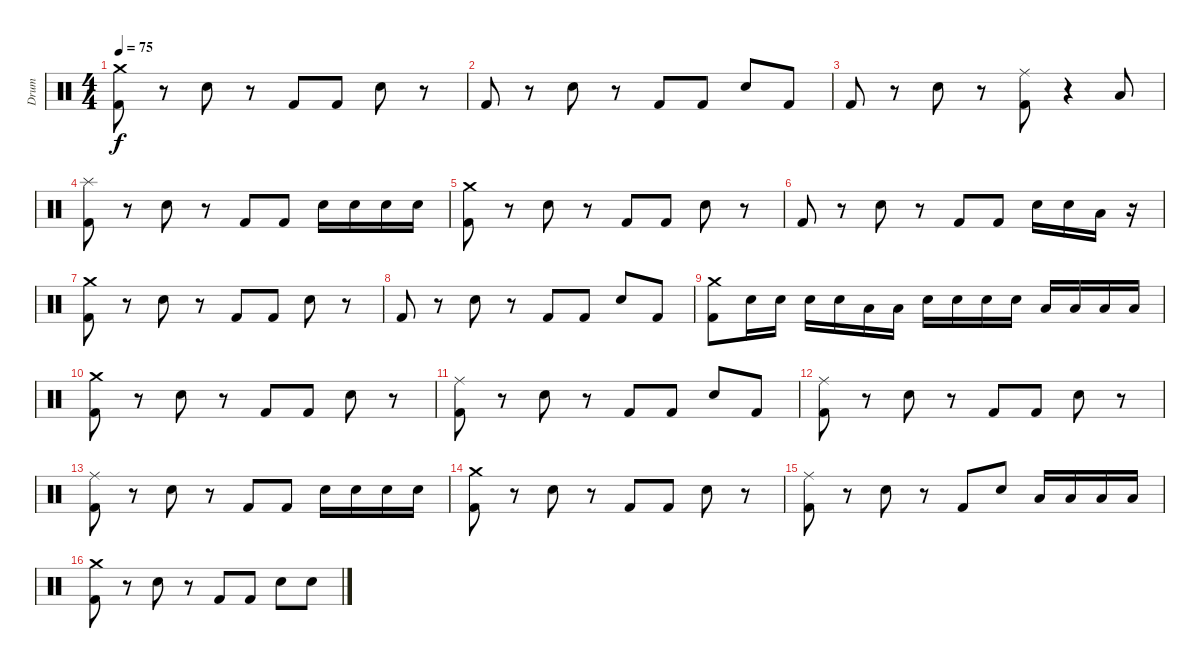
\track ("Drum" "Drum") {instrument percussion}
\staff {score}
\articulation defaults
\ts (4 4)
\tempo 75
\clef neutral
\ks c
("Kick (hit) 2" "Crash medium (hit)").8{dy f} r.8 "Snare (hit) 2".8 r.8 "Kick (hit) 2".8 "Kick (hit) 2".8 "Snare (hit) 2".8 r.8 |
"Kick (hit) 2".8 r.8 "Snare (hit) 2".8 r.8 "Kick (hit) 2".8 "Kick (hit) 2".8 "Snare (hit) 2".8 "Kick (hit) 2".8 |
"Kick (hit) 2".8 r.8 "Snare (hit) 2".8 r.8 ("Kick (hit) 2" "Ride (middle)").8 r.4 "Low Floor Tom (hit)".8 |
("Kick (hit) 2" "Splash (hit)").8 r.8 "Snare (hit) 2".8 r.8 "Kick (hit) 2".8 "Kick (hit) 2".8 "Electric Snare (hit)".16 "Electric Snare (hit)".16 "Snare (hit) 2".16 "Snare (hit) 2".16 |
("Kick (hit) 2" "Crash medium (hit)").8 r.8 "Snare (hit) 2".8 r.8 "Kick (hit) 2".8 "Kick (hit) 2".8 "Snare (hit) 2".8 r.8 |
"Kick (hit) 2".8 r.8 "Snare (hit) 2".8 r.8 "Kick (hit) 2".8 "Kick (hit) 2".8 "Snare (hit) 2".16 "Snare (hit) 2".16 "Low Floor Tom (hit)".16 r.16 |
("Kick (hit) 2" "Crash medium (hit)").8 r.8 "Snare (hit) 2".8 r.8 "Kick (hit) 2".8 "Kick (hit) 2".8 "Snare (hit) 2".8 r.8 |
"Kick (hit) 2".8 r.8 "Snare (hit) 2".8 r.8 "Kick (hit) 2".8 "Kick (hit) 2".8 "Snare (hit) 2".8 "Kick (hit) 2".8 |
("Crash medium (hit)" "Kick (hit) 2").8 "Electric Snare (hit)".16 "Electric Snare (hit)".16 "Snare (hit) 2".16 "Snare (hit) 2".16 "Low Floor Tom (hit)".16 "Low Floor Tom (hit)".16 "Electric Snare (hit)".16 "Electric Snare (hit)".16 "Snare (hit) 2".16 "Snare (hit) 2".16 "Low Floor Tom (hit)".16 "Low Floor Tom (hit)".16 "Low Tom (hit)".16 "Low Tom (hit)".16 |
("Kick (hit) 2" "Crash medium (hit)").8 r.8 "Snare (hit) 2".8 r.8 "Kick (hit) 2".8 "Kick (hit) 2".8 "Snare (hit) 2".8 r.8 |
("Kick (hit) 2" "Ride (middle)").8 r.8 "Snare (hit) 2".8 r.8 "Kick (hit) 2".8 "Kick (hit) 2".8 "Snare (hit) 2".8 "Kick (hit) 2".8 |
("Kick (hit) 2" "Ride (middle)").8 r.8 "Snare (hit) 2".8 r.8 "Kick (hit) 2".8 "Kick (hit) 2".8 "Snare (hit) 2".8 r.8 |
("Kick (hit) 2" "Ride (middle)").8 r.8 "Snare (hit) 2".8 r.8 "Kick (hit) 2".8 "Kick (hit) 2".8 "Electric Snare (hit)".16 "Electric Snare (hit)".16 "Snare (hit) 2".16 "Snare (hit) 2".16 |
("Kick (hit) 2" "Crash medium (hit)").8 r.8 "Snare (hit) 2".8 r.8 "Kick (hit) 2".8 "Kick (hit) 2".8 "Snare (hit) 2".8 r.8 |
("Kick (hit) 2" "Ride (middle)").8 r.8 "Snare (hit) 2".8 r.8 "Kick (hit) 2".8 "Snare (hit) 2".8 "Low Floor Tom (hit)".16 "Low Floor Tom (hit)".16 "Low Tom (hit)".16 "Low Tom (hit)".16 |
("Kick (hit) 2" "Crash medium (hit)").8 r.8 "Snare (hit) 2".8 r.8 "Kick (hit) 2".8 "Kick (hit) 2".8 "Snare (hit) 2".8 "Snare (hit) 2".8
